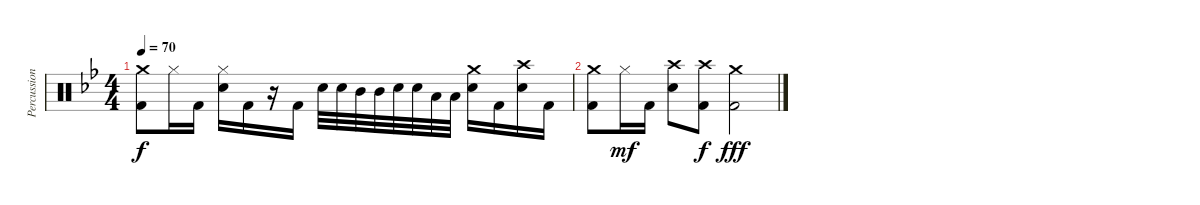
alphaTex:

\track ("Percussion" "Percussion") {instrument percussion}
\staff {score}
\articulation defaults
\ts (4 4)
\tempo 70
\clef neutral
\ks bb
("Crash medium (hit)" "Kick (hit) 2").8{dy f} "Hi-Hat (closed)".16 "Kick (hit) 2".16 ("Hi-Hat (closed)" "Electric Snare (hit)").16 "Kick (hit) 2".16 r.16 "Kick (hit) 2".16 "Electric Snare (hit)".32 "Electric Snare (hit)".32 "Mid Tom (hit)".32 "Mid Tom (hit)".32 "Electric Snare (hit)".32 "Electric Snare (hit)".32 "Low Tom (hit)".32 "Low Tom (hit)".32 ("Crash medium (hit)" "Electric Snare (hit)").16 "Kick (hit) 2".16 ("Crash high (hit)" "Electric Snare (hit)").16 "Kick (hit) 2".16 |
("Crash medium (hit)" "Kick (hit) 2").8 "Hi-Hat (closed)".16{dy mf} "Kick (hit) 2".16 ("Crash high (hit)" "Electric Snare (hit)").8 ("Crash high (hit)" "Kick (hit) 2").8{dy f} ("Crash medium (hit)" "Kick (hit) 2").2{dy fff}
